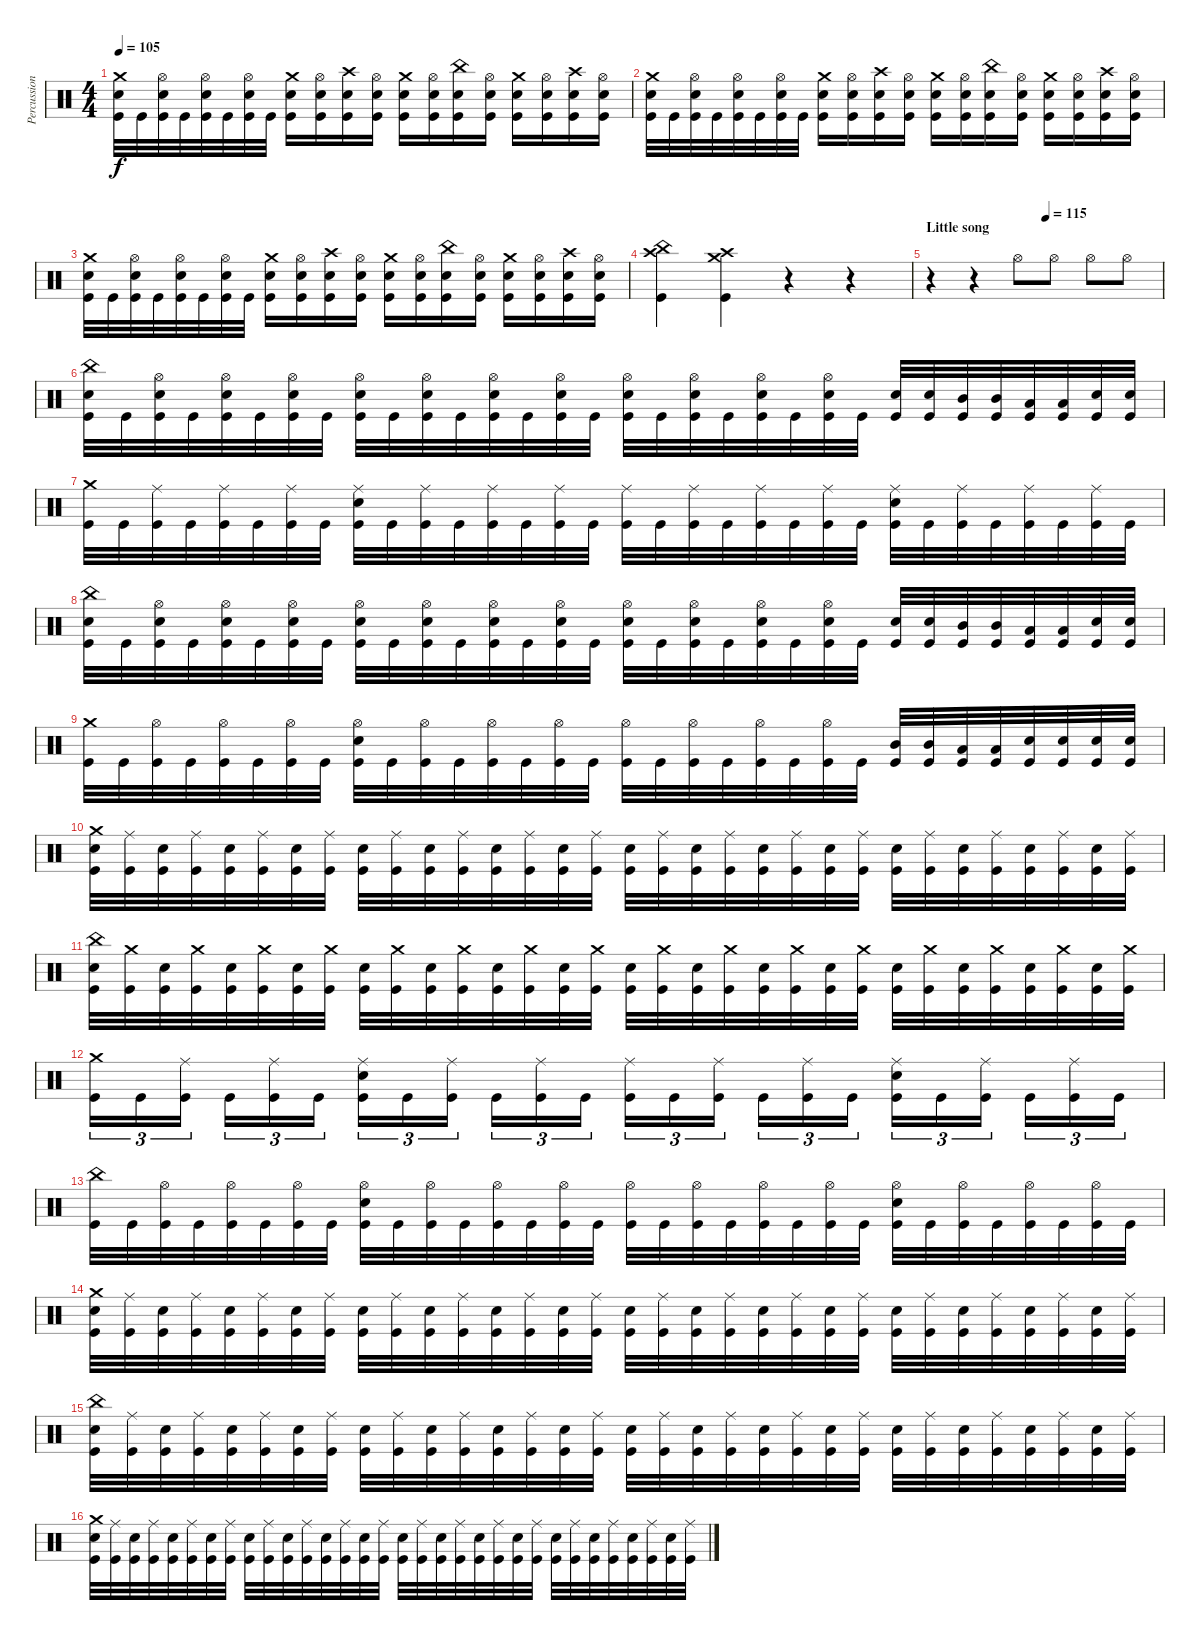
\track ("Percussion" "Percussion") {instrument percussion}
\staff {score}
\articulation defaults
\ts (4 4)
\tempo 105
\clef neutral
\ks c
("Crash medium (hit)" "Electric Snare (hit)" "Kick (hit)").32{dy f} "Kick (hit)".32 ("Hi-Hat (open)" "Electric Snare (hit)" "Kick (hit)").32 "Kick (hit)".32 ("Hi-Hat (open)" "Electric Snare (hit)" "Kick (hit)").32 "Kick (hit)".32 ("Hi-Hat (open)" "Electric Snare (hit)" "Kick (hit)").32 "Kick (hit)".32 ("Crash medium (hit)" "Electric Snare (hit)" "Kick (hit)").16 ("Hi-Hat (open)" "Electric Snare (hit)" "Kick (hit)").16 ("Crash high (hit)" "Electric Snare (hit)" "Kick (hit)").16 ("Hi-Hat (open)" "Electric Snare (hit)" "Kick (hit)").16 ("Crash medium (hit)" "Electric Snare (hit)" "Kick (hit)").16 ("Hi-Hat (open)" "Electric Snare (hit)" "Kick (hit)").16 ("China (hit)" "Electric Snare (hit)" "Kick (hit)").16 ("Hi-Hat (open)" "Electric Snare (hit)" "Kick (hit)").16 ("Crash medium (hit)" "Electric Snare (hit)" "Kick (hit)").16 ("Hi-Hat (open)" "Electric Snare (hit)" "Kick (hit)").16 ("Crash high (hit)" "Electric Snare (hit)" "Kick (hit)").16 ("Hi-Hat (open)" "Electric Snare (hit)" "Kick (hit)").16 |
("Crash medium (hit)" "Electric Snare (hit)" "Kick (hit)").32 "Kick (hit)".32 ("Hi-Hat (open)" "Electric Snare (hit)" "Kick (hit)").32 "Kick (hit)".32 ("Hi-Hat (open)" "Electric Snare (hit)" "Kick (hit)").32 "Kick (hit)".32 ("Hi-Hat (open)" "Electric Snare (hit)" "Kick (hit)").32 "Kick (hit)".32 ("Crash medium (hit)" "Electric Snare (hit)" "Kick (hit)").16 ("Hi-Hat (open)" "Electric Snare (hit)" "Kick (hit)").16 ("Crash high (hit)" "Electric Snare (hit)" "Kick (hit)").16 ("Hi-Hat (open)" "Electric Snare (hit)" "Kick (hit)").16 ("Crash medium (hit)" "Electric Snare (hit)" "Kick (hit)").16 ("Hi-Hat (open)" "Electric Snare (hit)" "Kick (hit)").16 ("China (hit)" "Electric Snare (hit)" "Kick (hit)").16 ("Hi-Hat (open)" "Electric Snare (hit)" "Kick (hit)").16 ("Crash medium (hit)" "Electric Snare (hit)" "Kick (hit)").16 ("Hi-Hat (open)" "Electric Snare (hit)" "Kick (hit)").16 ("Crash high (hit)" "Electric Snare (hit)" "Kick (hit)").16 ("Hi-Hat (open)" "Electric Snare (hit)" "Kick (hit)").16 |
("Crash medium (hit)" "Electric Snare (hit)" "Kick (hit)").32 "Kick (hit)".32 ("Hi-Hat (open)" "Electric Snare (hit)" "Kick (hit)").32 "Kick (hit)".32 ("Hi-Hat (open)" "Electric Snare (hit)" "Kick (hit)").32 "Kick (hit)".32 ("Hi-Hat (open)" "Electric Snare (hit)" "Kick (hit)").32 "Kick (hit)".32 ("Crash medium (hit)" "Electric Snare (hit)" "Kick (hit)").16 ("Hi-Hat (open)" "Electric Snare (hit)" "Kick (hit)").16 ("Crash high (hit)" "Electric Snare (hit)" "Kick (hit)").16 ("Hi-Hat (open)" "Electric Snare (hit)" "Kick (hit)").16 ("Crash medium (hit)" "Electric Snare (hit)" "Kick (hit)").16 ("Hi-Hat (open)" "Electric Snare (hit)" "Kick (hit)").16 ("China (hit)" "Electric Snare (hit)" "Kick (hit)").16 ("Hi-Hat (open)" "Electric Snare (hit)" "Kick (hit)").16 ("Crash medium (hit)" "Electric Snare (hit)" "Kick (hit)").16 ("Hi-Hat (open)" "Electric Snare (hit)" "Kick (hit)").16 ("Crash high (hit)" "Electric Snare (hit)" "Kick (hit)").16 ("Hi-Hat (open)" "Electric Snare (hit)" "Kick (hit)").16 |
("China (hit)" "Crash high (hit)" "Kick (hit)").4 ("Crash medium (hit)" "Crash high (hit)" "Kick (hit)").4 r.4 r.4 |
\section ("" "Little song")
\tempo (115 0.5)
r.4 r.4 "Hi-Hat (open)".8 "Hi-Hat (open)".8 "Hi-Hat (open)".8 "Hi-Hat (open)".8 |
("China (hit)" "Electric Snare (hit)" "Kick (hit)").32 "Kick (hit)".32 ("Hi-Hat (open)" "Electric Snare (hit)" "Kick (hit)").32 "Kick (hit)".32 ("Hi-Hat (open)" "Electric Snare (hit)" "Kick (hit)").32 "Kick (hit)".32 ("Hi-Hat (open)" "Electric Snare (hit)" "Kick (hit)").32 "Kick (hit)".32 ("Hi-Hat (open)" "Electric Snare (hit)" "Kick (hit)").32 "Kick (hit)".32 ("Hi-Hat (open)" "Electric Snare (hit)" "Kick (hit)").32 "Kick (hit)".32 ("Hi-Hat (open)" "Electric Snare (hit)" "Kick (hit)").32 "Kick (hit)".32 ("Hi-Hat (open)" "Electric Snare (hit)" "Kick (hit)").32 "Kick (hit)".32 ("Hi-Hat (open)" "Electric Snare (hit)" "Kick (hit)").32 "Kick (hit)".32 ("Hi-Hat (open)" "Electric Snare (hit)" "Kick (hit)").32 "Kick (hit)".32 ("Hi-Hat (open)" "Electric Snare (hit)" "Kick (hit)").32 "Kick (hit)".32 ("Hi-Hat (open)" "Electric Snare (hit)" "Kick (hit)").32 "Kick (hit)".32 ("Electric Snare (hit)" "Kick (hit)").32 ("Electric Snare (hit)" "Kick (hit)").32 ("Mid Tom (hit)" "Kick (hit)").32 ("Mid Tom (hit)" "Kick (hit)").32 ("Low Tom (hit)" "Kick (hit)").32 ("Low Tom (hit)" "Kick (hit)").32 ("Electric Snare (hit)" "Kick (hit)").32 ("Electric Snare (hit)" "Kick (hit)").32 |
("Crash medium (hit)" "Kick (hit)").32 "Kick (hit)".32 ("Ride (middle)" "Kick (hit)").32 "Kick (hit)".32 ("Ride (middle)" "Kick (hit)").32 "Kick (hit)".32 ("Ride (middle)" "Kick (hit)").32 "Kick (hit)".32 ("Ride (middle)" "Electric Snare (hit)" "Kick (hit)").32 "Kick (hit)".32 ("Ride (middle)" "Kick (hit)").32 "Kick (hit)".32 ("Ride (middle)" "Kick (hit)").32 "Kick (hit)".32 ("Ride (middle)" "Kick (hit)").32 "Kick (hit)".32 ("Ride (middle)" "Kick (hit)").32 "Kick (hit)".32 ("Ride (middle)" "Kick (hit)").32 "Kick (hit)".32 ("Ride (middle)" "Kick (hit)").32 "Kick (hit)".32 ("Ride (middle)" "Kick (hit)").32 "Kick (hit)".32 ("Ride (middle)" "Electric Snare (hit)" "Kick (hit)").32 "Kick (hit)".32 ("Ride (middle)" "Kick (hit)").32 "Kick (hit)".32 ("Ride (middle)" "Kick (hit)").32 "Kick (hit)".32 ("Ride (middle)" "Kick (hit)").32 "Kick (hit)".32 |
("China (hit)" "Electric Snare (hit)" "Kick (hit)").32 "Kick (hit)".32 ("Hi-Hat (open)" "Electric Snare (hit)" "Kick (hit)").32 "Kick (hit)".32 ("Hi-Hat (open)" "Electric Snare (hit)" "Kick (hit)").32 "Kick (hit)".32 ("Hi-Hat (open)" "Electric Snare (hit)" "Kick (hit)").32 "Kick (hit)".32 ("Hi-Hat (open)" "Electric Snare (hit)" "Kick (hit)").32 "Kick (hit)".32 ("Hi-Hat (open)" "Electric Snare (hit)" "Kick (hit)").32 "Kick (hit)".32 ("Hi-Hat (open)" "Electric Snare (hit)" "Kick (hit)").32 "Kick (hit)".32 ("Hi-Hat (open)" "Electric Snare (hit)" "Kick (hit)").32 "Kick (hit)".32 ("Hi-Hat (open)" "Electric Snare (hit)" "Kick (hit)").32 "Kick (hit)".32 ("Hi-Hat (open)" "Electric Snare (hit)" "Kick (hit)").32 "Kick (hit)".32 ("Hi-Hat (open)" "Electric Snare (hit)" "Kick (hit)").32 "Kick (hit)".32 ("Hi-Hat (open)" "Electric Snare (hit)" "Kick (hit)").32 "Kick (hit)".32 ("Electric Snare (hit)" "Kick (hit)").32 ("Electric Snare (hit)" "Kick (hit)").32 ("Mid Tom (hit)" "Kick (hit)").32 ("Mid Tom (hit)" "Kick (hit)").32 ("Low Tom (hit)" "Kick (hit)").32 ("Low Tom (hit)" "Kick (hit)").32 ("Electric Snare (hit)" "Kick (hit)").32 ("Electric Snare (hit)" "Kick (hit)").32 |
("Crash medium (hit)" "Kick (hit)").32 "Kick (hit)".32 ("Hi-Hat (open)" "Kick (hit)").32 "Kick (hit)".32 ("Hi-Hat (open)" "Kick (hit)").32 "Kick (hit)".32 ("Hi-Hat (open)" "Kick (hit)").32 "Kick (hit)".32 ("Hi-Hat (open)" "Electric Snare (hit)" "Kick (hit)").32 "Kick (hit)".32 ("Hi-Hat (open)" "Kick (hit)").32 "Kick (hit)".32 ("Hi-Hat (open)" "Kick (hit)").32 "Kick (hit)".32 ("Hi-Hat (open)" "Kick (hit)").32 "Kick (hit)".32 ("Hi-Hat (open)" "Kick (hit)").32 "Kick (hit)".32 ("Hi-Hat (open)" "Kick (hit)").32 "Kick (hit)".32 ("Hi-Hat (open)" "Kick (hit)").32 "Kick (hit)".32 ("Hi-Hat (open)" "Kick (hit)").32 "Kick (hit)".32 ("Mid Tom (hit)" "Kick (hit)").32 ("Mid Tom (hit)" "Kick (hit)").32 ("Low Tom (hit)" "Kick (hit)").32 ("Low Tom (hit)" "Kick (hit)").32 ("Electric Snare (hit)" "Kick (hit)").32 ("Electric Snare (hit)" "Kick (hit)").32 ("Electric Snare (hit)" "Kick (hit)").32 ("Electric Snare (hit)" "Kick (hit)").32 |
("Crash medium (hit)" "Electric Snare (hit)" "Kick (hit)").32 ("Ride (middle)" "Kick (hit)").32 ("Electric Snare (hit)" "Kick (hit)").32 ("Ride (middle)" "Kick (hit)").32 ("Electric Snare (hit)" "Kick (hit)").32 ("Ride (middle)" "Kick (hit)").32 ("Electric Snare (hit)" "Kick (hit)").32 ("Ride (middle)" "Kick (hit)").32 ("Electric Snare (hit)" "Kick (hit)").32 ("Ride (middle)" "Kick (hit)").32 ("Electric Snare (hit)" "Kick (hit)").32 ("Ride (middle)" "Kick (hit)").32 ("Electric Snare (hit)" "Kick (hit)").32 ("Ride (middle)" "Kick (hit)").32 ("Electric Snare (hit)" "Kick (hit)").32 ("Ride (middle)" "Kick (hit)").32 ("Electric Snare (hit)" "Kick (hit)").32 ("Ride (middle)" "Kick (hit)").32 ("Electric Snare (hit)" "Kick (hit)").32 ("Ride (middle)" "Kick (hit)").32 ("Electric Snare (hit)" "Kick (hit)").32 ("Ride (middle)" "Kick (hit)").32 ("Electric Snare (hit)" "Kick (hit)").32 ("Ride (middle)" "Kick (hit)").32 ("Electric Snare (hit)" "Kick (hit)").32 ("Ride (middle)" "Kick (hit)").32 ("Electric Snare (hit)" "Kick (hit)").32 ("Ride (middle)" "Kick (hit)").32 ("Electric Snare (hit)" "Kick (hit)").32 ("Ride (middle)" "Kick (hit)").32 ("Electric Snare (hit)" "Kick (hit)").32 ("Ride (middle)" "Kick (hit)").32 |
("China (hit)" "Electric Snare (hit)" "Kick (hit)").32 ("Crash medium (hit)" "Kick (hit)").32 ("Electric Snare (hit)" "Kick (hit)").32 ("Crash medium (hit)" "Kick (hit)").32 ("Electric Snare (hit)" "Kick (hit)").32 ("Crash medium (hit)" "Kick (hit)").32 ("Electric Snare (hit)" "Kick (hit)").32 ("Crash medium (hit)" "Kick (hit)").32 ("Electric Snare (hit)" "Kick (hit)").32 ("Crash medium (hit)" "Kick (hit)").32 ("Electric Snare (hit)" "Kick (hit)").32 ("Crash medium (hit)" "Kick (hit)").32 ("Electric Snare (hit)" "Kick (hit)").32 ("Crash medium (hit)" "Kick (hit)").32 ("Electric Snare (hit)" "Kick (hit)").32 ("Crash medium (hit)" "Kick (hit)").32 ("Electric Snare (hit)" "Kick (hit)").32 ("Crash medium (hit)" "Kick (hit)").32 ("Electric Snare (hit)" "Kick (hit)").32 ("Crash medium (hit)" "Kick (hit)").32 ("Electric Snare (hit)" "Kick (hit)").32 ("Crash medium (hit)" "Kick (hit)").32 ("Electric Snare (hit)" "Kick (hit)").32 ("Crash medium (hit)" "Kick (hit)").32 ("Electric Snare (hit)" "Kick (hit)").32 ("Crash medium (hit)" "Kick (hit)").32 ("Electric Snare (hit)" "Kick (hit)").32 ("Crash medium (hit)" "Kick (hit)").32 ("Electric Snare (hit)" "Kick (hit)").32 ("Crash medium (hit)" "Kick (hit)").32 ("Electric Snare (hit)" "Kick (hit)").32 ("Crash medium (hit)" "Kick (hit)").32 |
("Crash medium (hit)" "Kick (hit)").16{tu (3 2)} "Kick (hit)".16{tu (3 2)} ("Ride (middle)" "Kick (hit)").16{tu (3 2)} "Kick (hit)".16{tu (3 2)} ("Ride (middle)" "Kick (hit)").16{tu (3 2)} "Kick (hit)".16{tu (3 2)} ("Ride (middle)" "Electric Snare (hit)" "Kick (hit)").16{tu (3 2)} "Kick (hit)".16{tu (3 2)} ("Ride (middle)" "Kick (hit)").16{tu (3 2)} "Kick (hit)".16{tu (3 2)} ("Ride (middle)" "Kick (hit)").16{tu (3 2)} "Kick (hit)".16{tu (3 2)} ("Ride (middle)" "Kick (hit)").16{tu (3 2)} "Kick (hit)".16{tu (3 2)} ("Ride (middle)" "Kick (hit)").16{tu (3 2)} "Kick (hit)".16{tu (3 2)} ("Ride (middle)" "Kick (hit)").16{tu (3 2)} "Kick (hit)".16{tu (3 2)} ("Ride (middle)" "Electric Snare (hit)" "Kick (hit)").16{tu (3 2)} "Kick (hit)".16{tu (3 2)} ("Ride (middle)" "Kick (hit)").16{tu (3 2)} "Kick (hit)".16{tu (3 2)} ("Ride (middle)" "Kick (hit)").16{tu (3 2)} "Kick (hit)".16{tu (3 2)} |
("China (hit)" "Kick (hit)").32 "Kick (hit)".32 ("Hi-Hat (open)" "Kick (hit)").32 "Kick (hit)".32 ("Hi-Hat (open)" "Kick (hit)").32 "Kick (hit)".32 ("Hi-Hat (open)" "Kick (hit)").32 "Kick (hit)".32 ("Hi-Hat (open)" "Electric Snare (hit)" "Kick (hit)").32 "Kick (hit)".32 ("Hi-Hat (open)" "Kick (hit)").32 "Kick (hit)".32 ("Hi-Hat (open)" "Kick (hit)").32 "Kick (hit)".32 ("Hi-Hat (open)" "Kick (hit)").32 "Kick (hit)".32 ("Hi-Hat (open)" "Kick (hit)").32 "Kick (hit)".32 ("Hi-Hat (open)" "Kick (hit)").32 "Kick (hit)".32 ("Hi-Hat (open)" "Kick (hit)").32 "Kick (hit)".32 ("Hi-Hat (open)" "Kick (hit)").32 "Kick (hit)".32 ("Hi-Hat (open)" "Electric Snare (hit)" "Kick (hit)").32 "Kick (hit)".32 ("Hi-Hat (open)" "Kick (hit)").32 "Kick (hit)".32 ("Hi-Hat (open)" "Kick (hit)").32 "Kick (hit)".32 ("Hi-Hat (open)" "Kick (hit)").32 "Kick (hit)".32 |
("Crash medium (hit)" "Electric Snare (hit)" "Kick (hit)").32 ("Ride (middle)" "Kick (hit)").32 ("Electric Snare (hit)" "Kick (hit)").32 ("Ride (middle)" "Kick (hit)").32 ("Electric Snare (hit)" "Kick (hit)").32 ("Ride (middle)" "Kick (hit)").32 ("Electric Snare (hit)" "Kick (hit)").32 ("Ride (middle)" "Kick (hit)").32 ("Electric Snare (hit)" "Kick (hit)").32 ("Ride (middle)" "Kick (hit)").32 ("Electric Snare (hit)" "Kick (hit)").32 ("Ride (middle)" "Kick (hit)").32 ("Electric Snare (hit)" "Kick (hit)").32 ("Ride (middle)" "Kick (hit)").32 ("Electric Snare (hit)" "Kick (hit)").32 ("Ride (middle)" "Kick (hit)").32 ("Electric Snare (hit)" "Kick (hit)").32 ("Ride (middle)" "Kick (hit)").32 ("Electric Snare (hit)" "Kick (hit)").32 ("Ride (middle)" "Kick (hit)").32 ("Electric Snare (hit)" "Kick (hit)").32 ("Ride (middle)" "Kick (hit)").32 ("Electric Snare (hit)" "Kick (hit)").32 ("Ride (middle)" "Kick (hit)").32 ("Electric Snare (hit)" "Kick (hit)").32 ("Ride (middle)" "Kick (hit)").32 ("Electric Snare (hit)" "Kick (hit)").32 ("Ride (middle)" "Kick (hit)").32 ("Electric Snare (hit)" "Kick (hit)").32 ("Ride (middle)" "Kick (hit)").32 ("Electric Snare (hit)" "Kick (hit)").32 ("Ride (middle)" "Kick (hit)").32 |
("China (hit)" "Electric Snare (hit)" "Kick (hit)").32 ("Ride (middle)" "Kick (hit)").32 ("Electric Snare (hit)" "Kick (hit)").32 ("Ride (middle)" "Kick (hit)").32 ("Electric Snare (hit)" "Kick (hit)").32 ("Ride (middle)" "Kick (hit)").32 ("Electric Snare (hit)" "Kick (hit)").32 ("Ride (middle)" "Kick (hit)").32 ("Electric Snare (hit)" "Kick (hit)").32 ("Ride (middle)" "Kick (hit)").32 ("Electric Snare (hit)" "Kick (hit)").32 ("Ride (middle)" "Kick (hit)").32 ("Electric Snare (hit)" "Kick (hit)").32 ("Ride (middle)" "Kick (hit)").32 ("Electric Snare (hit)" "Kick (hit)").32 ("Ride (middle)" "Kick (hit)").32 ("Electric Snare (hit)" "Kick (hit)").32 ("Ride (middle)" "Kick (hit)").32 ("Electric Snare (hit)" "Kick (hit)").32 ("Ride (middle)" "Kick (hit)").32 ("Electric Snare (hit)" "Kick (hit)").32 ("Ride (middle)" "Kick (hit)").32 ("Electric Snare (hit)" "Kick (hit)").32 ("Ride (middle)" "Kick (hit)").32 ("Electric Snare (hit)" "Kick (hit)").32 ("Ride (middle)" "Kick (hit)").32 ("Electric Snare (hit)" "Kick (hit)").32 ("Ride (middle)" "Kick (hit)").32 ("Electric Snare (hit)" "Kick (hit)").32 ("Ride (middle)" "Kick (hit)").32 ("Electric Snare (hit)" "Kick (hit)").32 ("Ride (middle)" "Kick (hit)").32 |
("Crash medium (hit)" "Electric Snare (hit)" "Kick (hit)").32 ("Ride (middle)" "Kick (hit)").32 ("Electric Snare (hit)" "Kick (hit)").32 ("Ride (middle)" "Kick (hit)").32 ("Electric Snare (hit)" "Kick (hit)").32 ("Ride (middle)" "Kick (hit)").32 ("Electric Snare (hit)" "Kick (hit)").32 ("Ride (middle)" "Kick (hit)").32 ("Electric Snare (hit)" "Kick (hit)").32 ("Ride (middle)" "Kick (hit)").32 ("Electric Snare (hit)" "Kick (hit)").32 ("Ride (middle)" "Kick (hit)").32 ("Electric Snare (hit)" "Kick (hit)").32 ("Ride (middle)" "Kick (hit)").32 ("Electric Snare (hit)" "Kick (hit)").32 ("Ride (middle)" "Kick (hit)").32 ("Electric Snare (hit)" "Kick (hit)").32 ("Ride (middle)" "Kick (hit)").32 ("Electric Snare (hit)" "Kick (hit)").32 ("Ride (middle)" "Kick (hit)").32 ("Electric Snare (hit)" "Kick (hit)").32 ("Ride (middle)" "Kick (hit)").32 ("Electric Snare (hit)" "Kick (hit)").32 ("Ride (middle)" "Kick (hit)").32 ("Electric Snare (hit)" "Kick (hit)").32 ("Ride (middle)" "Kick (hit)").32 ("Electric Snare (hit)" "Kick (hit)").32 ("Ride (middle)" "Kick (hit)").32 ("Electric Snare (hit)" "Kick (hit)").32 ("Ride (middle)" "Kick (hit)").32 ("Electric Snare (hit)" "Kick (hit)").32 ("Ride (middle)" "Kick (hit)").32
